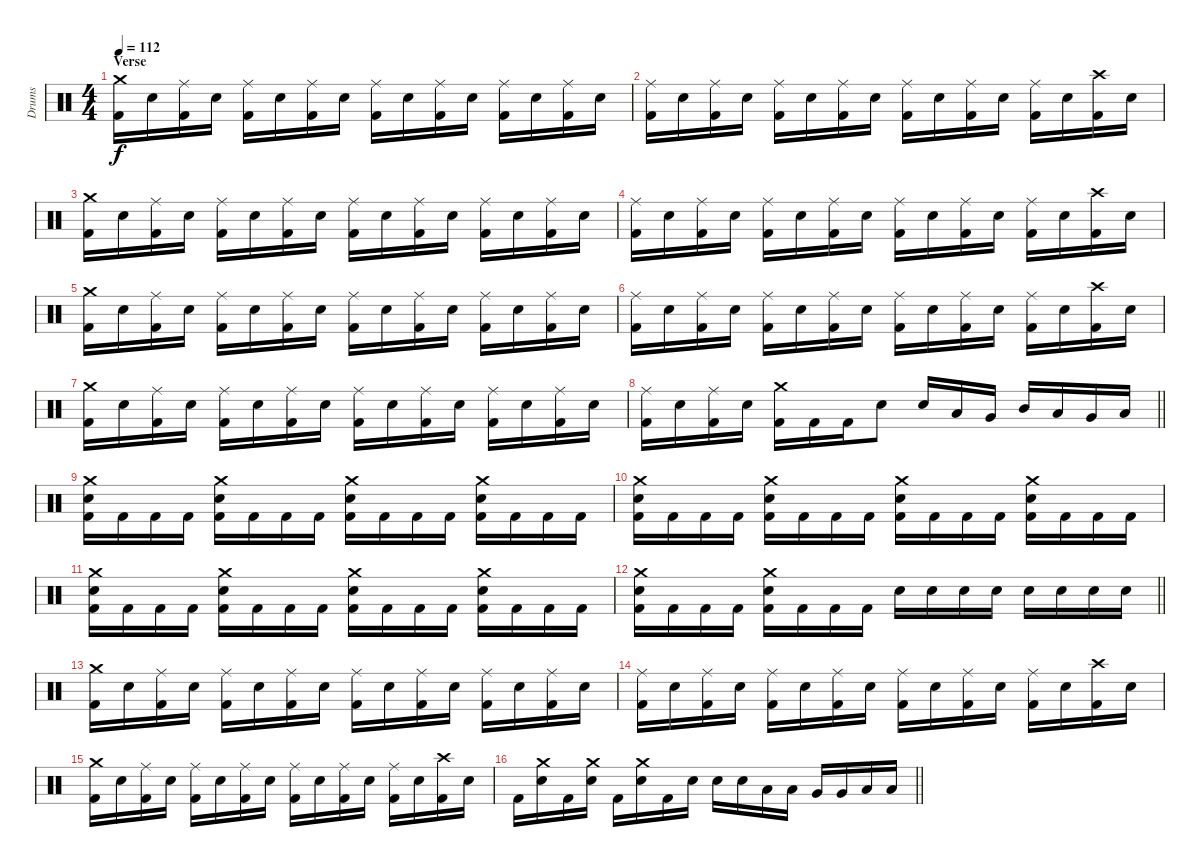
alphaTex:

\track ("Drums" "Drums") {instrument percussion}
\staff {score}
\articulation defaults
\ts (4 4)
\section ("" "Verse")
\tempo 112
\clef neutral
\ks c
("Crash medium (hit)" "Kick (hit) 2").16{dy f} "Electric Snare (hit)".16 ("Ride (middle)" "Kick (hit) 2").16 "Electric Snare (hit)".16 ("Ride (middle)" "Kick (hit) 2").16 "Electric Snare (hit)".16 ("Ride (middle)" "Kick (hit) 2").16 "Electric Snare (hit)".16 ("Ride (middle)" "Kick (hit) 2").16 "Electric Snare (hit)".16 ("Ride (middle)" "Kick (hit) 2").16 "Electric Snare (hit)".16 ("Ride (middle)" "Kick (hit) 2").16 "Electric Snare (hit)".16 ("Ride (middle)" "Kick (hit) 2").16 "Electric Snare (hit)".16 |
("Ride (middle)" "Kick (hit) 2").16 "Electric Snare (hit)".16 ("Ride (middle)" "Kick (hit) 2").16 "Electric Snare (hit)".16 ("Ride (middle)" "Kick (hit) 2").16 "Electric Snare (hit)".16 ("Ride (middle)" "Kick (hit) 2").16 "Electric Snare (hit)".16 ("Ride (middle)" "Kick (hit) 2").16 "Electric Snare (hit)".16 ("Ride (middle)" "Kick (hit) 2").16 "Electric Snare (hit)".16 ("Ride (middle)" "Kick (hit) 2").16 "Electric Snare (hit)".16 ("Crash high (hit)" "Kick (hit) 2").16 "Electric Snare (hit)".16 |
("Crash medium (hit)" "Kick (hit) 2").16 "Electric Snare (hit)".16 ("Ride (middle)" "Kick (hit) 2").16 "Electric Snare (hit)".16 ("Ride (middle)" "Kick (hit) 2").16 "Electric Snare (hit)".16 ("Ride (middle)" "Kick (hit) 2").16 "Electric Snare (hit)".16 ("Ride (middle)" "Kick (hit) 2").16 "Electric Snare (hit)".16 ("Ride (middle)" "Kick (hit) 2").16 "Electric Snare (hit)".16 ("Ride (middle)" "Kick (hit) 2").16 "Electric Snare (hit)".16 ("Ride (middle)" "Kick (hit) 2").16 "Electric Snare (hit)".16 |
("Ride (middle)" "Kick (hit) 2").16 "Electric Snare (hit)".16 ("Ride (middle)" "Kick (hit) 2").16 "Electric Snare (hit)".16 ("Ride (middle)" "Kick (hit) 2").16 "Electric Snare (hit)".16 ("Ride (middle)" "Kick (hit) 2").16 "Electric Snare (hit)".16 ("Ride (middle)" "Kick (hit) 2").16 "Electric Snare (hit)".16 ("Ride (middle)" "Kick (hit) 2").16 "Electric Snare (hit)".16 ("Ride (middle)" "Kick (hit) 2").16 "Electric Snare (hit)".16 ("Crash high (hit)" "Kick (hit) 2").16 "Electric Snare (hit)".16 |
("Crash medium (hit)" "Kick (hit) 2").16 "Electric Snare (hit)".16 ("Ride (middle)" "Kick (hit) 2").16 "Electric Snare (hit)".16 ("Ride (middle)" "Kick (hit) 2").16 "Electric Snare (hit)".16 ("Ride (middle)" "Kick (hit) 2").16 "Electric Snare (hit)".16 ("Ride (middle)" "Kick (hit) 2").16 "Electric Snare (hit)".16 ("Ride (middle)" "Kick (hit) 2").16 "Electric Snare (hit)".16 ("Ride (middle)" "Kick (hit) 2").16 "Electric Snare (hit)".16 ("Ride (middle)" "Kick (hit) 2").16 "Electric Snare (hit)".16 |
("Ride (middle)" "Kick (hit) 2").16 "Electric Snare (hit)".16 ("Ride (middle)" "Kick (hit) 2").16 "Electric Snare (hit)".16 ("Ride (middle)" "Kick (hit) 2").16 "Electric Snare (hit)".16 ("Ride (middle)" "Kick (hit) 2").16 "Electric Snare (hit)".16 ("Ride (middle)" "Kick (hit) 2").16 "Electric Snare (hit)".16 ("Ride (middle)" "Kick (hit) 2").16 "Electric Snare (hit)".16 ("Ride (middle)" "Kick (hit) 2").16 "Electric Snare (hit)".16 ("Crash high (hit)" "Kick (hit) 2").16 "Electric Snare (hit)".16 |
("Crash medium (hit)" "Kick (hit) 2").16 "Electric Snare (hit)".16 ("Ride (middle)" "Kick (hit) 2").16 "Electric Snare (hit)".16 ("Ride (middle)" "Kick (hit) 2").16 "Electric Snare (hit)".16 ("Ride (middle)" "Kick (hit) 2").16 "Electric Snare (hit)".16 ("Ride (middle)" "Kick (hit) 2").16 "Electric Snare (hit)".16 ("Ride (middle)" "Kick (hit) 2").16 "Electric Snare (hit)".16 ("Ride (middle)" "Kick (hit) 2").16 "Electric Snare (hit)".16 ("Ride (middle)" "Kick (hit) 2").16 "Electric Snare (hit)".16 |
\barLineRight lightlight
("Ride (middle)" "Kick (hit) 2").16 "Electric Snare (hit)".16 ("Ride (middle)" "Kick (hit) 2").16 "Electric Snare (hit)".16 ("Crash medium (hit)" "Kick (hit) 2").16 "Kick (hit) 2".16 "Kick (hit) 2".16 "Electric Snare (hit)".8 "Electric Snare (hit)".16 "Low Tom (hit)".16 "Very Low Tom (hit)".16 "Mid Tom (hit)".16 "Low Tom (hit)".16 "Very Low Tom (hit)".16 "Low Floor Tom (hit)".16 |
\section ("" "")
("Crash medium (hit)" "Electric Snare (hit)" "Kick (hit) 2").16 "Kick (hit) 2".16 "Kick (hit) 2".16 "Kick (hit) 2".16 ("Crash medium (hit)" "Electric Snare (hit)" "Kick (hit) 2").16 "Kick (hit) 2".16 "Kick (hit) 2".16 "Kick (hit) 2".16 ("Crash medium (hit)" "Electric Snare (hit)" "Kick (hit) 2").16 "Kick (hit) 2".16 "Kick (hit) 2".16 "Kick (hit) 2".16 ("Crash medium (hit)" "Electric Snare (hit)" "Kick (hit) 2").16 "Kick (hit) 2".16 "Kick (hit) 2".16 "Kick (hit) 2".16 |
("Crash medium (hit)" "Electric Snare (hit)" "Kick (hit) 2").16 "Kick (hit) 2".16 "Kick (hit) 2".16 "Kick (hit) 2".16 ("Crash medium (hit)" "Electric Snare (hit)" "Kick (hit) 2").16 "Kick (hit) 2".16 "Kick (hit) 2".16 "Kick (hit) 2".16 ("Crash medium (hit)" "Electric Snare (hit)" "Kick (hit) 2").16 "Kick (hit) 2".16 "Kick (hit) 2".16 "Kick (hit) 2".16 ("Crash medium (hit)" "Electric Snare (hit)" "Kick (hit) 2").16 "Kick (hit) 2".16 "Kick (hit) 2".16 "Kick (hit) 2".16 |
("Crash medium (hit)" "Electric Snare (hit)" "Kick (hit) 2").16 "Kick (hit) 2".16 "Kick (hit) 2".16 "Kick (hit) 2".16 ("Crash medium (hit)" "Electric Snare (hit)" "Kick (hit) 2").16 "Kick (hit) 2".16 "Kick (hit) 2".16 "Kick (hit) 2".16 ("Crash medium (hit)" "Electric Snare (hit)" "Kick (hit) 2").16 "Kick (hit) 2".16 "Kick (hit) 2".16 "Kick (hit) 2".16 ("Crash medium (hit)" "Electric Snare (hit)" "Kick (hit) 2").16 "Kick (hit) 2".16 "Kick (hit) 2".16 "Kick (hit) 2".16 |
\barLineRight lightlight
("Crash medium (hit)" "Electric Snare (hit)" "Kick (hit) 2").16 "Kick (hit) 2".16 "Kick (hit) 2".16 "Kick (hit) 2".16 ("Crash medium (hit)" "Electric Snare (hit)" "Kick (hit) 2").16 "Kick (hit) 2".16 "Kick (hit) 2".16 "Kick (hit) 2".16 "Electric Snare (hit)".16 "Electric Snare (hit)".16 "Electric Snare (hit)".16 "Electric Snare (hit)".16 "Electric Snare (hit)".16 "Electric Snare (hit)".16 "Electric Snare (hit)".16 "Electric Snare (hit)".16 |
\section ("" "")
("Crash medium (hit)" "Kick (hit) 2").16 "Electric Snare (hit)".16 ("Ride (middle)" "Kick (hit) 2").16 "Electric Snare (hit)".16 ("Ride (middle)" "Kick (hit) 2").16 "Electric Snare (hit)".16 ("Ride (middle)" "Kick (hit) 2").16 "Electric Snare (hit)".16 ("Ride (middle)" "Kick (hit) 2").16 "Electric Snare (hit)".16 ("Ride (middle)" "Kick (hit) 2").16 "Electric Snare (hit)".16 ("Ride (middle)" "Kick (hit) 2").16 "Electric Snare (hit)".16 ("Ride (middle)" "Kick (hit) 2").16 "Electric Snare (hit)".16 |
("Ride (middle)" "Kick (hit) 2").16 "Electric Snare (hit)".16 ("Ride (middle)" "Kick (hit) 2").16 "Electric Snare (hit)".16 ("Ride (middle)" "Kick (hit) 2").16 "Electric Snare (hit)".16 ("Ride (middle)" "Kick (hit) 2").16 "Electric Snare (hit)".16 ("Ride (middle)" "Kick (hit) 2").16 "Electric Snare (hit)".16 ("Ride (middle)" "Kick (hit) 2").16 "Electric Snare (hit)".16 ("Ride (middle)" "Kick (hit) 2").16 "Electric Snare (hit)".16 ("Crash high (hit)" "Kick (hit) 2").16 "Electric Snare (hit)".16 |
("Crash medium (hit)" "Kick (hit) 2").16 "Electric Snare (hit)".16 ("Ride (middle)" "Kick (hit) 2").16 "Electric Snare (hit)".16 ("Ride (middle)" "Kick (hit) 2").16 "Electric Snare (hit)".16 ("Ride (middle)" "Kick (hit) 2").16 "Electric Snare (hit)".16 ("Ride (middle)" "Kick (hit) 2").16 "Electric Snare (hit)".16 ("Ride (middle)" "Kick (hit) 2").16 "Electric Snare (hit)".16 ("Ride (middle)" "Kick (hit) 2").16 "Electric Snare (hit)".16 ("Crash high (hit)" "Kick (hit) 2").16 "Electric Snare (hit)".16 |
\barLineRight lightlight "Kick (hit) 2".16
("Crash medium (hit)" "Electric Snare (hit)").16 "Kick (hit) 2".16 ("Crash medium (hit)" "Electric Snare (hit)").16 "Kick (hit) 2".16 ("Crash medium (hit)" "Electric Snare (hit)").16 "Kick (hit) 2".16 "Electric Snare (hit)".16 "Electric Snare (hit)".16 "Electric Snare (hit)".16 "Low Tom (hit)".16 "Low Tom (hit)".16 "Very Low Tom (hit)".16 "Very Low Tom (hit)".16 "Low Floor Tom (hit)".16 "Low Floor Tom (hit)".16
